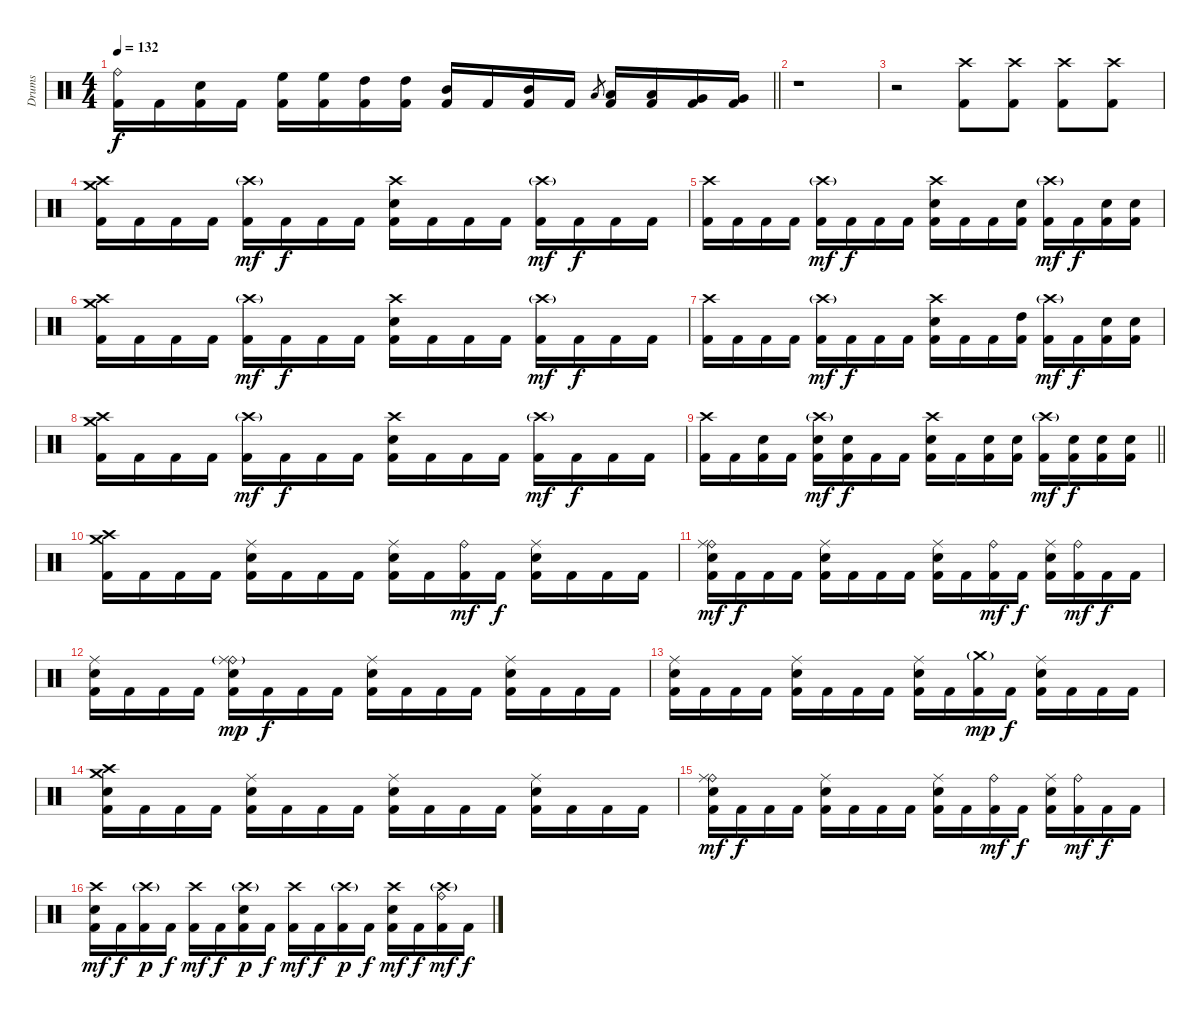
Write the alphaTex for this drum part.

\track ("Drums" "Drums") {instrument percussion}
\staff {score}
\articulation defaults
\ts (4 4)
\tempo 132
\clef neutral
\barLineRight lightlight
\ks c
("Ride (bell)" "Kick (hit) 2").16{dy f} "Kick (hit) 2".16 ("Electric Snare (hit)" "Kick (hit) 2").16 "Kick (hit) 2".16 ("High Floor Tom (hit)" "Kick (hit) 2").16 ("High Floor Tom (hit)" "Kick (hit) 2").16 ("High Tom (hit)" "Kick (hit) 2").16 ("High Tom (hit)" "Kick (hit) 2").16 ("Mid Tom (hit)" "Kick (hit) 2").16 "Kick (hit) 2".16 ("Mid Tom (hit)" "Kick (hit) 2").16 "Kick (hit) 2".16 "Low Tom (hit)".8{gr} ("Low Tom (hit)" "Kick (hit) 2").16 ("Low Tom (hit)" "Kick (hit) 2").16 ("Very Low Tom (hit)" "Kick (hit) 2").16 ("Very Low Tom (hit)" "Kick (hit) 2").16 |
r.1 |
r.2 ("Crash high (hit)" "Kick (hit) 2").8 ("Crash high (hit)" "Kick (hit) 2").8 ("Crash high (hit)" "Kick (hit) 2").8 ("Crash high (hit)" "Kick (hit) 2").8 |
("Crash high (hit)" "Crash medium (hit)" "Kick (hit) 2").16 "Kick (hit) 2".16 "Kick (hit) 2".16 "Kick (hit) 2".16 ("Crash high (hit)"{g} "Kick (hit) 2").16{dy mf} "Kick (hit) 2".16{dy f} "Kick (hit) 2".16 "Kick (hit) 2".16 ("Crash high (hit)" "Electric Snare (hit)" "Kick (hit) 2").16 "Kick (hit) 2".16 "Kick (hit) 2".16 "Kick (hit) 2".16 ("Crash high (hit)"{g} "Kick (hit) 2").16{dy mf} "Kick (hit) 2".16{dy f} "Kick (hit) 2".16 "Kick (hit) 2".16 |
("Crash high (hit)" "Kick (hit) 2").16 "Kick (hit) 2".16 "Kick (hit) 2".16 "Kick (hit) 2".16 ("Crash high (hit)"{g} "Kick (hit) 2").16{dy mf} "Kick (hit) 2".16{dy f} "Kick (hit) 2".16 "Kick (hit) 2".16 ("Crash high (hit)" "Electric Snare (hit)" "Kick (hit) 2").16 "Kick (hit) 2".16 "Kick (hit) 2".16 ("Electric Snare (hit)" "Kick (hit) 2").16 ("Crash high (hit)"{g} "Kick (hit) 2").16{dy mf} "Kick (hit) 2".16{dy f} ("Electric Snare (hit)" "Kick (hit) 2").16 ("Electric Snare (hit)" "Kick (hit) 2").16 |
("Crash high (hit)" "Crash medium (hit)" "Kick (hit) 2").16 "Kick (hit) 2".16 "Kick (hit) 2".16 "Kick (hit) 2".16 ("Crash high (hit)"{g} "Kick (hit) 2").16{dy mf} "Kick (hit) 2".16{dy f} "Kick (hit) 2".16 "Kick (hit) 2".16 ("Crash high (hit)" "Electric Snare (hit)" "Kick (hit) 2").16 "Kick (hit) 2".16 "Kick (hit) 2".16 "Kick (hit) 2".16 ("Crash high (hit)"{g} "Kick (hit) 2").16{dy mf} "Kick (hit) 2".16{dy f} "Kick (hit) 2".16 "Kick (hit) 2".16 |
("Crash high (hit)" "Kick (hit) 2").16 "Kick (hit) 2".16 "Kick (hit) 2".16 "Kick (hit) 2".16 ("Crash high (hit)"{g} "Kick (hit) 2").16{dy mf} "Kick (hit) 2".16{dy f} "Kick (hit) 2".16 "Kick (hit) 2".16 ("Crash high (hit)" "Electric Snare (hit)" "Kick (hit) 2").16 "Kick (hit) 2".16 "Kick (hit) 2".16 ("High Tom (hit)" "Kick (hit) 2").16 ("Crash high (hit)"{g} "Kick (hit) 2").16{dy mf} "Kick (hit) 2".16{dy f} ("Electric Snare (hit)" "Kick (hit) 2").16 ("Electric Snare (hit)" "Kick (hit) 2").16 |
("Crash high (hit)" "Crash medium (hit)" "Kick (hit) 2").16 "Kick (hit) 2".16 "Kick (hit) 2".16 "Kick (hit) 2".16 ("Crash high (hit)"{g} "Kick (hit) 2").16{dy mf} "Kick (hit) 2".16{dy f} "Kick (hit) 2".16 "Kick (hit) 2".16 ("Crash high (hit)" "Electric Snare (hit)" "Kick (hit) 2").16 "Kick (hit) 2".16 "Kick (hit) 2".16 "Kick (hit) 2".16 ("Crash high (hit)"{g} "Kick (hit) 2").16{dy mf} "Kick (hit) 2".16{dy f} "Kick (hit) 2".16 "Kick (hit) 2".16 |
\barLineRight lightlight
("Crash high (hit)" "Kick (hit) 2").16 "Kick (hit) 2".16 ("Electric Snare (hit)" "Kick (hit) 2").16 "Kick (hit) 2".16 ("Crash high (hit)"{g} "Electric Snare (hit)" "Kick (hit) 2").16{dy mf} ("Electric Snare (hit)" "Kick (hit) 2").16{dy f} "Kick (hit) 2".16 "Kick (hit) 2".16 ("Crash high (hit)" "Electric Snare (hit)" "Kick (hit) 2").16 "Kick (hit) 2".16 ("Electric Snare (hit)" "Kick (hit) 2").16 ("Electric Snare (hit)" "Kick (hit) 2").16 ("Crash high (hit)"{g} "Kick (hit) 2").16{dy mf} ("Electric Snare (hit)" "Kick (hit) 2").16{dy f} ("Electric Snare (hit)" "Kick (hit) 2").16 ("Electric Snare (hit)" "Kick (hit) 2").16 |
("Crash high (hit)" "Crash medium (hit)" "Kick (hit) 2").16 "Kick (hit) 2".16 "Kick (hit) 2".16 "Kick (hit) 2".16 ("Ride (middle)" "Electric Snare (hit)" "Kick (hit) 2").16 "Kick (hit) 2".16 "Kick (hit) 2".16 "Kick (hit) 2".16 ("Ride (middle)" "Electric Snare (hit)" "Kick (hit) 2").16 "Kick (hit) 2".16 ("Ride (bell)" "Kick (hit) 2").16{dy mf} "Kick (hit) 2".16{dy f} ("Ride (middle)" "Electric Snare (hit)" "Kick (hit) 2").16 "Kick (hit) 2".16 "Kick (hit) 2".16 "Kick (hit) 2".16 |
("Ride (bell)" "Ride (middle)" "Electric Snare (hit)" "Kick (hit) 2").16{dy mf} "Kick (hit) 2".16{dy f} "Kick (hit) 2".16 "Kick (hit) 2".16 ("Ride (middle)" "Electric Snare (hit)" "Kick (hit) 2").16 "Kick (hit) 2".16 "Kick (hit) 2".16 "Kick (hit) 2".16 ("Ride (middle)" "Electric Snare (hit)" "Kick (hit) 2").16 "Kick (hit) 2".16 ("Ride (bell)" "Kick (hit) 2").16{dy mf} "Kick (hit) 2".16{dy f} ("Ride (middle)" "Electric Snare (hit)" "Kick (hit) 2").16 ("Ride (bell)" "Kick (hit) 2").16{dy mf} "Kick (hit) 2".16{dy f} "Kick (hit) 2".16 |
("Ride (middle)" "Electric Snare (hit)" "Kick (hit) 2").16 "Kick (hit) 2".16 "Kick (hit) 2".16 "Kick (hit) 2".16 ("Ride (bell)"{g} "Ride (middle)" "Electric Snare (hit)" "Kick (hit) 2").16{dy mp} "Kick (hit) 2".16{dy f} "Kick (hit) 2".16 "Kick (hit) 2".16 ("Ride (middle)" "Electric Snare (hit)" "Kick (hit) 2").16 "Kick (hit) 2".16 "Kick (hit) 2".16 "Kick (hit) 2".16 ("Ride (middle)" "Electric Snare (hit)" "Kick (hit) 2").16 "Kick (hit) 2".16 "Kick (hit) 2".16 "Kick (hit) 2".16 |
("Ride (middle)" "Electric Snare (hit)" "Kick (hit) 2").16 "Kick (hit) 2".16 "Kick (hit) 2".16 "Kick (hit) 2".16 ("Ride (middle)" "Electric Snare (hit)" "Kick (hit) 2").16 "Kick (hit) 2".16 "Kick (hit) 2".16 "Kick (hit) 2".16 ("Ride (middle)" "Electric Snare (hit)" "Kick (hit) 2").16 "Kick (hit) 2".16 ("Crash medium (hit)"{g} "Kick (hit) 2").16{dy mp} "Kick (hit) 2".16{dy f} ("Ride (middle)" "Electric Snare (hit)" "Kick (hit) 2").16 "Kick (hit) 2".16 "Kick (hit) 2".16 "Kick (hit) 2".16 |
("Crash high (hit)" "Crash medium (hit)" "Electric Snare (hit)" "Kick (hit) 2").16 "Kick (hit) 2".16 "Kick (hit) 2".16 "Kick (hit) 2".16 ("Ride (middle)" "Electric Snare (hit)" "Kick (hit) 2").16 "Kick (hit) 2".16 "Kick (hit) 2".16 "Kick (hit) 2".16 ("Ride (middle)" "Electric Snare (hit)" "Kick (hit) 2").16 "Kick (hit) 2".16 "Kick (hit) 2".16 "Kick (hit) 2".16 ("Ride (middle)" "Electric Snare (hit)" "Kick (hit) 2").16 "Kick (hit) 2".16 "Kick (hit) 2".16 "Kick (hit) 2".16 |
("Ride (bell)" "Ride (middle)" "Electric Snare (hit)" "Kick (hit) 2").16{dy mf} "Kick (hit) 2".16{dy f} "Kick (hit) 2".16 "Kick (hit) 2".16 ("Ride (middle)" "Electric Snare (hit)" "Kick (hit) 2").16 "Kick (hit) 2".16 "Kick (hit) 2".16 "Kick (hit) 2".16 ("Ride (middle)" "Electric Snare (hit)" "Kick (hit) 2").16 "Kick (hit) 2".16 ("Ride (bell)" "Kick (hit) 2").16{dy mf} "Kick (hit) 2".16{dy f} ("Ride (middle)" "Electric Snare (hit)" "Kick (hit) 2").16 ("Ride (bell)" "Kick (hit) 2").16{dy mf} "Kick (hit) 2".16{dy f} "Kick (hit) 2".16 |
("Crash high (hit)" "Electric Snare (hit)" "Kick (hit) 2").16{dy mf} "Kick (hit) 2".16{dy f} ("Crash high (hit)"{g} "Kick (hit) 2").16{dy p} "Kick (hit) 2".16{dy f} ("Crash high (hit)" "Kick (hit) 2").16{dy mf} "Kick (hit) 2".16{dy f} ("Crash high (hit)"{g} "Electric Snare (hit)" "Kick (hit) 2").16{dy p} "Kick (hit) 2".16{dy f} ("Crash high (hit)" "Kick (hit) 2").16{dy mf} "Kick (hit) 2".16{dy f} ("Crash high (hit)"{g} "Kick (hit) 2").16{dy p} "Kick (hit) 2".16{dy f} ("Crash high (hit)" "Electric Snare (hit)" "Kick (hit) 2").16{dy mf} "Kick (hit) 2".16{dy f} ("Crash high (hit)"{g} "Ride (bell)" "Kick (hit) 2").16{dy mf} "Kick (hit) 2".16{dy f}
